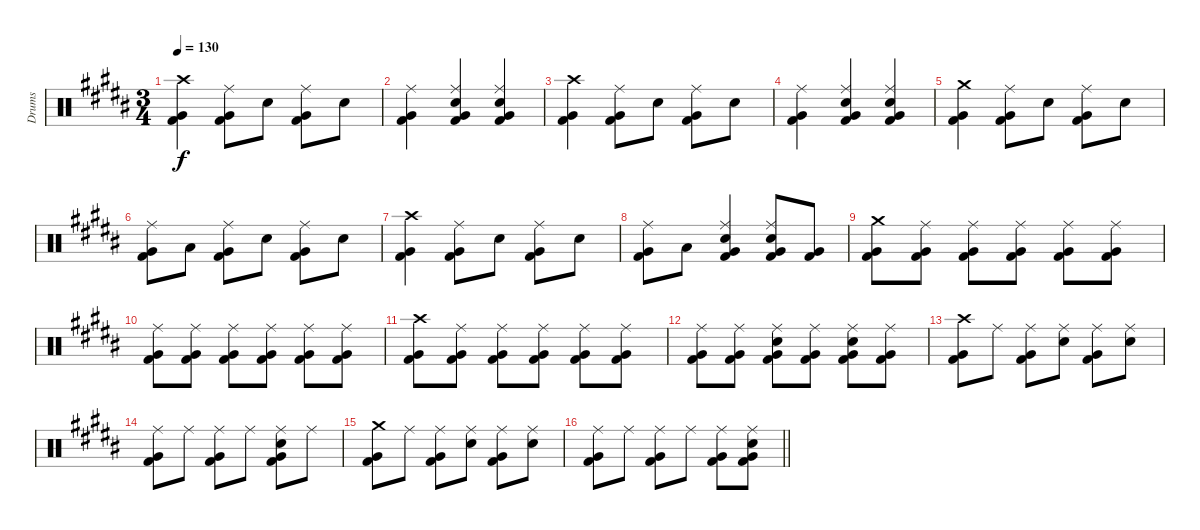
\track ("Drums" "Drums") {instrument percussion}
\staff {score}
\articulation defaults
\ts (3 4)
\tempo 130
\clef neutral
\ks b
("Crash high (hit)" "Very Low Tom (hit)" "Kick (hit) 2").4{dy f} ("Ride (middle)" "Very Low Tom (hit)" "Kick (hit) 2").8 "Electric Snare (hit)".8 ("Ride (middle)" "Very Low Tom (hit)" "Kick (hit) 2").8 "Electric Snare (hit)".8 |
("Ride (middle)" "Very Low Tom (hit)" "Kick (hit) 2").4 ("Ride (middle)" "Electric Snare (hit)" "Very Low Tom (hit)" "Kick (hit) 2").4 ("Ride (middle)" "Electric Snare (hit)" "Very Low Tom (hit)" "Kick (hit) 2").4 |
("Crash high (hit)" "Very Low Tom (hit)" "Kick (hit) 2").4 ("Ride (middle)" "Very Low Tom (hit)" "Kick (hit) 2").8 "Electric Snare (hit)".8 ("Ride (middle)" "Very Low Tom (hit)" "Kick (hit) 2").8 "Electric Snare (hit)".8 |
("Ride (middle)" "Very Low Tom (hit)" "Kick (hit) 2").4 ("Ride (middle)" "Electric Snare (hit)" "Very Low Tom (hit)" "Kick (hit) 2").4 ("Ride (middle)" "Electric Snare (hit)" "Very Low Tom (hit)" "Kick (hit) 2").4 |
("Crash medium (hit)" "Very Low Tom (hit)" "Kick (hit) 2").4 ("Ride (middle)" "Very Low Tom (hit)" "Kick (hit) 2").8 "Electric Snare (hit)".8 ("Ride (middle)" "Very Low Tom (hit)" "Kick (hit) 2").8 "Electric Snare (hit)".8 |
("Ride (middle)" "Very Low Tom (hit)" "Kick (hit) 2").8 "Low Tom (hit)".8 ("Ride (middle)" "Very Low Tom (hit)" "Kick (hit) 2").8 "Electric Snare (hit)".8 ("Ride (middle)" "Very Low Tom (hit)" "Kick (hit) 2").8 "Electric Snare (hit)".8 |
("Crash high (hit)" "Very Low Tom (hit)" "Kick (hit) 2").4 ("Ride (middle)" "Very Low Tom (hit)" "Kick (hit) 2").8 "Electric Snare (hit)".8 ("Ride (middle)" "Very Low Tom (hit)" "Kick (hit) 2").8 "Electric Snare (hit)".8 |
("Ride (middle)" "Very Low Tom (hit)" "Kick (hit) 2").8 "Low Tom (hit)".8 ("Ride (middle)" "Electric Snare (hit)" "Very Low Tom (hit)" "Kick (hit) 2").4 ("Ride (middle)" "Electric Snare (hit)" "Very Low Tom (hit)" "Kick (hit) 2").8 ("Very Low Tom (hit)" "Kick (hit) 2").8 |
("Crash medium (hit)" "Very Low Tom (hit)" "Kick (hit) 2").8 ("Ride (middle)" "Very Low Tom (hit)" "Kick (hit) 2").8 ("Ride (middle)" "Very Low Tom (hit)" "Kick (hit) 2").8 ("Ride (middle)" "Very Low Tom (hit)" "Kick (hit) 2").8 ("Ride (middle)" "Very Low Tom (hit)" "Kick (hit) 2").8 ("Ride (middle)" "Very Low Tom (hit)" "Kick (hit) 2").8 |
("Ride (middle)" "Very Low Tom (hit)" "Kick (hit) 2").8 ("Ride (middle)" "Very Low Tom (hit)" "Kick (hit) 2").8 ("Ride (middle)" "Very Low Tom (hit)" "Kick (hit) 2").8 ("Ride (middle)" "Very Low Tom (hit)" "Kick (hit) 2").8 ("Ride (middle)" "Very Low Tom (hit)" "Kick (hit) 2").8 ("Ride (middle)" "Very Low Tom (hit)" "Kick (hit) 2").8 |
("Crash high (hit)" "Very Low Tom (hit)" "Kick (hit) 2").8 ("Ride (middle)" "Very Low Tom (hit)" "Kick (hit) 2").8 ("Ride (middle)" "Very Low Tom (hit)" "Kick (hit) 2").8 ("Ride (middle)" "Very Low Tom (hit)" "Kick (hit) 2").8 ("Ride (middle)" "Very Low Tom (hit)" "Kick (hit) 2").8 ("Ride (middle)" "Very Low Tom (hit)" "Kick (hit) 2").8 |
("Ride (middle)" "Very Low Tom (hit)" "Kick (hit) 2").8 ("Ride (middle)" "Very Low Tom (hit)" "Kick (hit) 2").8 ("Ride (middle)" "Electric Snare (hit)" "Very Low Tom (hit)" "Kick (hit) 2").8 ("Ride (middle)" "Very Low Tom (hit)" "Kick (hit) 2").8 ("Ride (middle)" "Electric Snare (hit)" "Very Low Tom (hit)" "Kick (hit) 2").8 ("Ride (middle)" "Very Low Tom (hit)" "Kick (hit) 2").8 |
("Crash high (hit)" "Very Low Tom (hit)" "Kick (hit) 2").8 "Ride (middle)".8 ("Ride (middle)" "Very Low Tom (hit)" "Kick (hit) 2").8 ("Ride (middle)" "Electric Snare (hit)").8 ("Ride (middle)" "Very Low Tom (hit)" "Kick (hit) 2").8 ("Ride (middle)" "Electric Snare (hit)").8 |
("Ride (middle)" "Very Low Tom (hit)" "Kick (hit) 2").8 "Ride (middle)".8 ("Ride (middle)" "Very Low Tom (hit)" "Kick (hit) 2").8 "Ride (middle)".8 ("Ride (middle)" "Electric Snare (hit)" "Very Low Tom (hit)" "Kick (hit) 2").8 "Ride (middle)".8 |
("Crash medium (hit)" "Very Low Tom (hit)" "Kick (hit) 2").8 "Ride (middle)".8 ("Ride (middle)" "Very Low Tom (hit)" "Kick (hit) 2").8 ("Ride (middle)" "Electric Snare (hit)").8 ("Ride (middle)" "Very Low Tom (hit)" "Kick (hit) 2").8 ("Ride (middle)" "Electric Snare (hit)").8 |
\barLineRight lightlight
("Ride (middle)" "Very Low Tom (hit)" "Kick (hit) 2").8 "Ride (middle)".8 ("Ride (middle)" "Very Low Tom (hit)" "Kick (hit) 2").8 "Ride (middle)".8 ("Ride (middle)" "Very Low Tom (hit)" "Kick (hit) 2").8 ("Ride (middle)" "Electric Snare (hit)" "Very Low Tom (hit)" "Kick (hit) 2").8
